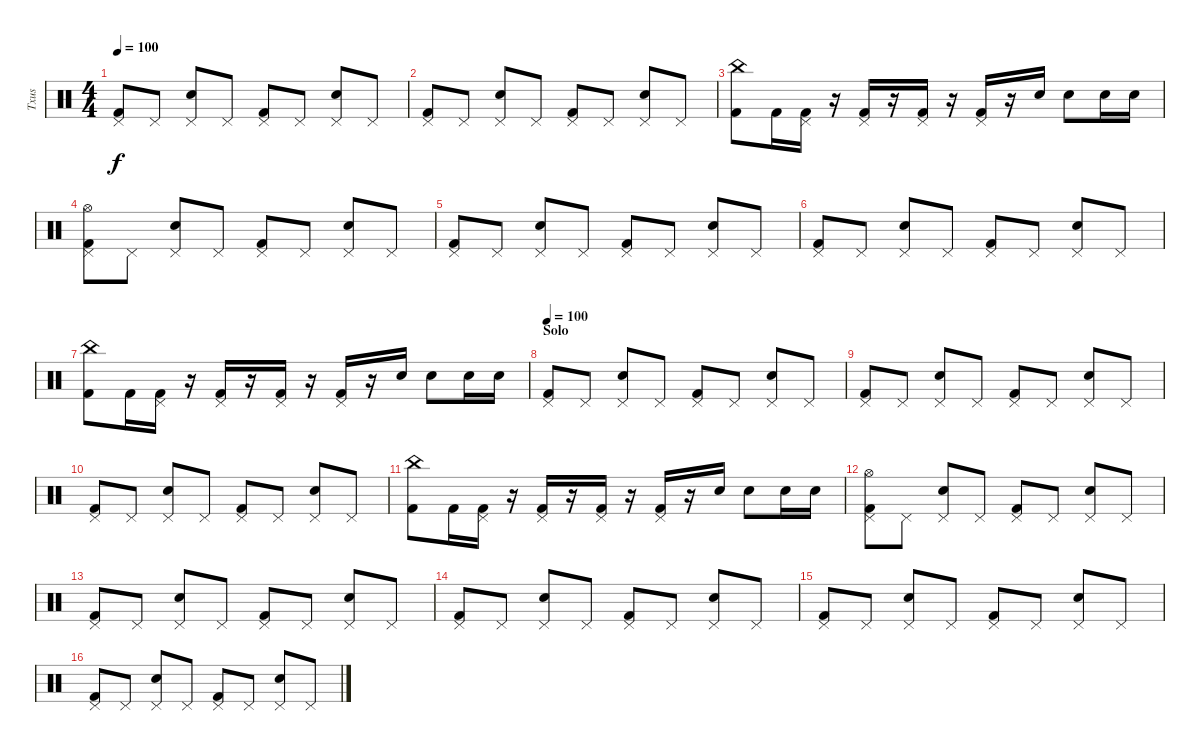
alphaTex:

\track ("Txus" "Txus") {instrument percussion}
\staff {score}
\articulation defaults
\ts (4 4)
\tempo 100
\clef neutral
\ks c
("Pedal Hi-Hat (hit)" "Kick (hit) 2").8{dy f} "Pedal Hi-Hat (hit)".8 ("Pedal Hi-Hat (hit)" "Snare (hit) 2").8 "Pedal Hi-Hat (hit)".8 ("Pedal Hi-Hat (hit)" "Kick (hit) 2").8 "Pedal Hi-Hat (hit)".8 ("Pedal Hi-Hat (hit)" "Snare (hit) 2").8 "Pedal Hi-Hat (hit)".8 |
("Pedal Hi-Hat (hit)" "Kick (hit) 2").8 "Pedal Hi-Hat (hit)".8 ("Pedal Hi-Hat (hit)" "Snare (hit) 2").8 "Pedal Hi-Hat (hit)".8 ("Pedal Hi-Hat (hit)" "Kick (hit) 2").8 "Pedal Hi-Hat (hit)".8 ("Pedal Hi-Hat (hit)" "Snare (hit) 2").8 "Pedal Hi-Hat (hit)".8 |
("China (hit)" "Kick (hit) 2").8 "Kick (hit) 2".16 ("Pedal Hi-Hat (hit)" "Kick (hit) 2").16 r.16 ("Pedal Hi-Hat (hit)" "Kick (hit) 2").16 r.16 ("Pedal Hi-Hat (hit)" "Kick (hit) 2").16 r.16 ("Pedal Hi-Hat (hit)" "Kick (hit) 2").16 r.16 "Snare (hit) 2".16 "Snare (hit) 2".8 "Snare (hit) 2".16 "Snare (hit) 2".16 |
("Pedal Hi-Hat (hit)" "Kick (hit) 2" "Hi-Hat (open)").8 "Pedal Hi-Hat (hit)".8 ("Pedal Hi-Hat (hit)" "Snare (hit) 2").8 "Pedal Hi-Hat (hit)".8 ("Pedal Hi-Hat (hit)" "Kick (hit) 2").8 "Pedal Hi-Hat (hit)".8 ("Pedal Hi-Hat (hit)" "Snare (hit) 2").8 "Pedal Hi-Hat (hit)".8 |
("Pedal Hi-Hat (hit)" "Kick (hit) 2").8 "Pedal Hi-Hat (hit)".8 ("Pedal Hi-Hat (hit)" "Snare (hit) 2").8 "Pedal Hi-Hat (hit)".8 ("Pedal Hi-Hat (hit)" "Kick (hit) 2").8 "Pedal Hi-Hat (hit)".8 ("Pedal Hi-Hat (hit)" "Snare (hit) 2").8 "Pedal Hi-Hat (hit)".8 |
("Pedal Hi-Hat (hit)" "Kick (hit) 2").8 "Pedal Hi-Hat (hit)".8 ("Pedal Hi-Hat (hit)" "Snare (hit) 2").8 "Pedal Hi-Hat (hit)".8 ("Pedal Hi-Hat (hit)" "Kick (hit) 2").8 "Pedal Hi-Hat (hit)".8 ("Pedal Hi-Hat (hit)" "Snare (hit) 2").8 "Pedal Hi-Hat (hit)".8 |
("China (hit)" "Kick (hit) 2").8 "Kick (hit) 2".16 ("Pedal Hi-Hat (hit)" "Kick (hit) 2").16 r.16 ("Pedal Hi-Hat (hit)" "Kick (hit) 2").16 r.16 ("Pedal Hi-Hat (hit)" "Kick (hit) 2").16 r.16 ("Pedal Hi-Hat (hit)" "Kick (hit) 2").16 r.16 "Snare (hit) 2".16 "Snare (hit) 2".8 "Snare (hit) 2".16 "Snare (hit) 2".16 |
\section ("" "Solo")
\tempo 100
("Pedal Hi-Hat (hit)" "Kick (hit) 2").8 "Pedal Hi-Hat (hit)".8 ("Pedal Hi-Hat (hit)" "Snare (hit) 2").8 "Pedal Hi-Hat (hit)".8 ("Pedal Hi-Hat (hit)" "Kick (hit) 2").8 "Pedal Hi-Hat (hit)".8 ("Pedal Hi-Hat (hit)" "Snare (hit) 2").8 "Pedal Hi-Hat (hit)".8 |
("Pedal Hi-Hat (hit)" "Kick (hit) 2").8 "Pedal Hi-Hat (hit)".8 ("Pedal Hi-Hat (hit)" "Snare (hit) 2").8 "Pedal Hi-Hat (hit)".8 ("Pedal Hi-Hat (hit)" "Kick (hit) 2").8 "Pedal Hi-Hat (hit)".8 ("Pedal Hi-Hat (hit)" "Snare (hit) 2").8 "Pedal Hi-Hat (hit)".8 |
("Pedal Hi-Hat (hit)" "Kick (hit) 2").8 "Pedal Hi-Hat (hit)".8 ("Pedal Hi-Hat (hit)" "Snare (hit) 2").8 "Pedal Hi-Hat (hit)".8 ("Pedal Hi-Hat (hit)" "Kick (hit) 2").8 "Pedal Hi-Hat (hit)".8 ("Pedal Hi-Hat (hit)" "Snare (hit) 2").8 "Pedal Hi-Hat (hit)".8 |
("China (hit)" "Kick (hit) 2").8 "Kick (hit) 2".16 ("Pedal Hi-Hat (hit)" "Kick (hit) 2").16 r.16 ("Pedal Hi-Hat (hit)" "Kick (hit) 2").16 r.16 ("Pedal Hi-Hat (hit)" "Kick (hit) 2").16 r.16 ("Pedal Hi-Hat (hit)" "Kick (hit) 2").16 r.16 "Snare (hit) 2".16 "Snare (hit) 2".8 "Snare (hit) 2".16 "Snare (hit) 2".16 |
("Pedal Hi-Hat (hit)" "Kick (hit) 2" "Hi-Hat (open)").8 "Pedal Hi-Hat (hit)".8 ("Pedal Hi-Hat (hit)" "Snare (hit) 2").8 "Pedal Hi-Hat (hit)".8 ("Pedal Hi-Hat (hit)" "Kick (hit) 2").8 "Pedal Hi-Hat (hit)".8 ("Pedal Hi-Hat (hit)" "Snare (hit) 2").8 "Pedal Hi-Hat (hit)".8 |
("Pedal Hi-Hat (hit)" "Kick (hit) 2").8 "Pedal Hi-Hat (hit)".8 ("Pedal Hi-Hat (hit)" "Snare (hit) 2").8 "Pedal Hi-Hat (hit)".8 ("Pedal Hi-Hat (hit)" "Kick (hit) 2").8 "Pedal Hi-Hat (hit)".8 ("Pedal Hi-Hat (hit)" "Snare (hit) 2").8 "Pedal Hi-Hat (hit)".8 |
("Pedal Hi-Hat (hit)" "Kick (hit) 2").8 "Pedal Hi-Hat (hit)".8 ("Pedal Hi-Hat (hit)" "Snare (hit) 2").8 "Pedal Hi-Hat (hit)".8 ("Pedal Hi-Hat (hit)" "Kick (hit) 2").8 "Pedal Hi-Hat (hit)".8 ("Pedal Hi-Hat (hit)" "Snare (hit) 2").8 "Pedal Hi-Hat (hit)".8 |
("Pedal Hi-Hat (hit)" "Kick (hit) 2").8 "Pedal Hi-Hat (hit)".8 ("Pedal Hi-Hat (hit)" "Snare (hit) 2").8 "Pedal Hi-Hat (hit)".8 ("Pedal Hi-Hat (hit)" "Kick (hit) 2").8 "Pedal Hi-Hat (hit)".8 ("Pedal Hi-Hat (hit)" "Snare (hit) 2").8 "Pedal Hi-Hat (hit)".8 |
("Pedal Hi-Hat (hit)" "Kick (hit) 2").8 "Pedal Hi-Hat (hit)".8 ("Pedal Hi-Hat (hit)" "Snare (hit) 2").8 "Pedal Hi-Hat (hit)".8 ("Pedal Hi-Hat (hit)" "Kick (hit) 2").8 "Pedal Hi-Hat (hit)".8 ("Pedal Hi-Hat (hit)" "Snare (hit) 2").8 "Pedal Hi-Hat (hit)".8
